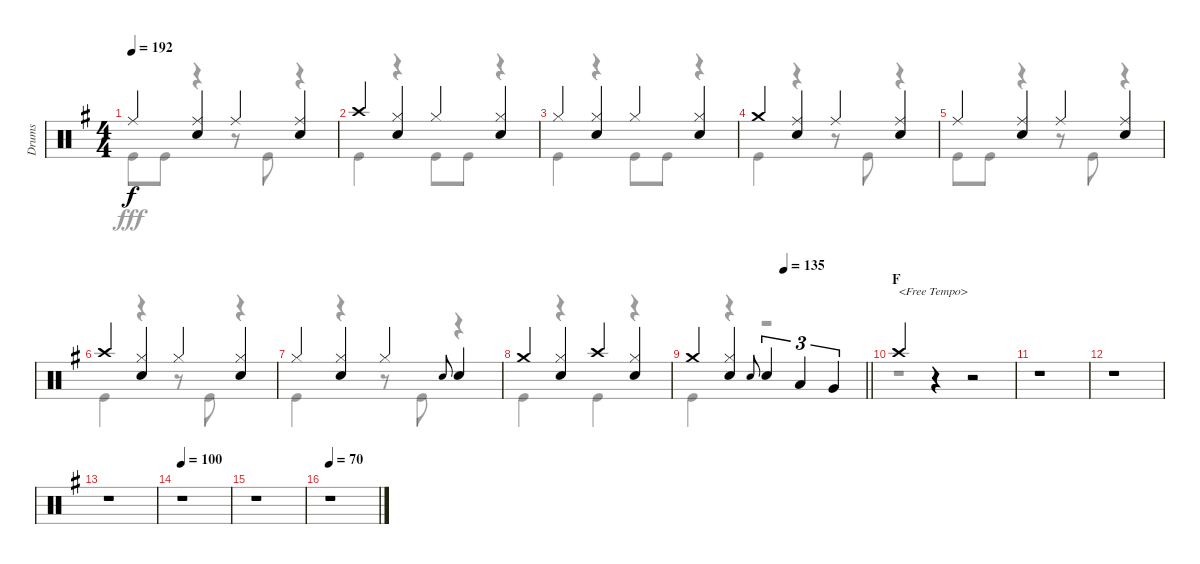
\track ("Drums" "Drums") {instrument percussion}
\staff {score}
\articulation defaults
\voice
\ts (4 4)
\tempo 192
\clef neutral
\ks g "Ride (middle)".4{dy f}
("Ride (middle)" "Snare (hit) 2").4 "Ride (middle)".4 ("Ride (middle)" "Snare (hit) 2").4 |
"Crash high (hit)".4 ("Hi-Hat (closed)" "Snare (hit) 2").4 "Hi-Hat (closed)".4 ("Hi-Hat (closed)" "Snare (hit) 2").4 |
"Hi-Hat (closed)".4 ("Hi-Hat (closed)" "Snare (hit) 2").4 "Hi-Hat (closed)".4 ("Hi-Hat (closed)" "Snare (hit) 2").4 |
"Crash medium (hit)".4 ("Ride (middle)" "Snare (hit) 2").4 "Ride (middle)".4 ("Ride (middle)" "Snare (hit) 2").4 |
"Ride (middle)".4 ("Ride (middle)" "Snare (hit) 2").4 "Ride (middle)".4 ("Ride (middle)" "Snare (hit) 2").4 |
"Crash high (hit)".4 ("Hi-Hat (closed)" "Snare (hit) 2").4 "Hi-Hat (closed)".4 ("Hi-Hat (closed)" "Snare (hit) 2").4 |
"Hi-Hat (closed)".4 ("Hi-Hat (closed)" "Snare (hit) 2").4 "Hi-Hat (closed)".4 "Snare (hit) 2".8{gr onbeat} "Snare (hit) 2".4 |
"Crash medium (hit)".4 ("Hi-Hat (closed)" "Snare (hit) 2").4 "Crash high (hit)".4 ("Hi-Hat (closed)" "Snare (hit) 2").4 |
\tempo (135 0.53125)
\barLineRight lightlight "Crash medium (hit)".4
("Hi-Hat (closed)" "Snare (hit) 2").4 "Snare (hit) 2".8{gr onbeat} "Snare (hit) 2".4{tu (3 2)} "Low Tom (hit)".4{tu (3 2)} "Very Low Tom (hit)".4{tu (3 2)} |
\section ("" "F")
"Crash high (hit)".4{txt "<Free Tempo>"} r.4 r.2 |
r.1 |
r.1 |
r.1 |
\tempo 100
r.1 |
r.1 |
\tempo 70
r.1
\voice
\clef neutral
\ottava regular
\simile none
\ks g "Kick (hit)".8{dy fff} "Kick (hit)".8
r.4 r.8 "Kick (hit)".8 r.4 |
"Kick (hit)".4 r.4 "Kick (hit)".8 "Kick (hit)".8 r.4 |
"Kick (hit)".4 r.4 "Kick (hit)".8 "Kick (hit)".8 r.4 |
"Kick (hit)".4 r.4 r.8 "Kick (hit)".8 r.4 |
"Kick (hit)".8 "Kick (hit)".8 r.4 r.8 "Kick (hit)".8 r.4 |
"Kick (hit)".4 r.4 r.8 "Kick (hit)".8 r.4 |
"Kick (hit)".4 r.4 r.8 "Kick (hit)".8 r.4 |
"Kick (hit)".4 r.4 "Kick (hit)".4 r.4 |
\barLineRight lightlight "Kick (hit)".4
r.4 r.2 |
r.1 |
r.1 |
r.1 |
r.1 |
r.1 |
r.1 |
r.1
